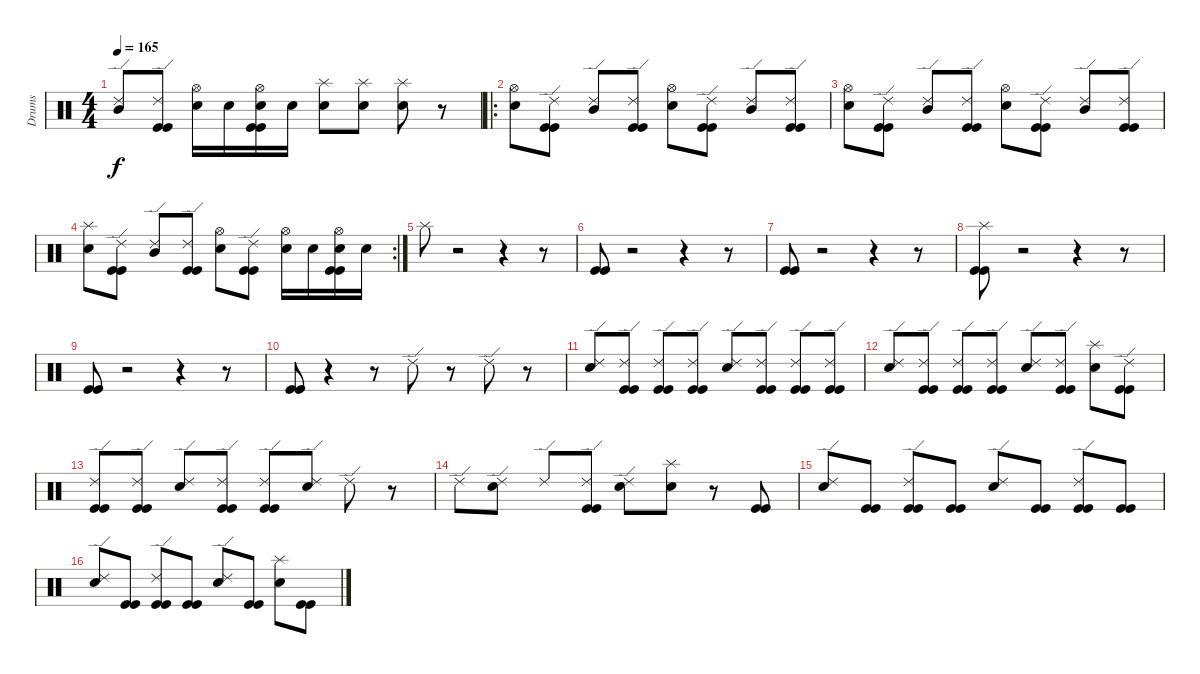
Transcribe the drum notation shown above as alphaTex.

\track ("Drums" "Drums") {instrument percussion}
\staff {score}
\articulation defaults
\ts (4 4)
\tempo 165
\clef neutral
\ks c
("Ride (edge) 2" "Mid Tom (hit)").8{dy f} ("Ride (edge) 2" "Kick (hit)" "Kick (hit)").8 ("Hi-Hat (open)" "Snare (hit) 2").16 "Snare (hit) 2".16 ("Hi-Hat (open)" "Snare (hit) 2" "Kick (hit)" "Kick (hit)").16 "Snare (hit) 2".16 ("Splash (hit)" "Snare (hit) 2").8 ("Splash (hit)" "Snare (hit) 2").8 ("Splash (hit)" "Snare (hit) 2").8 r.8 |
\ro
("Hi-Hat (open)" "Snare (hit) 2").8 ("Ride (edge) 2" "Kick (hit)" "Kick (hit)").8 ("Ride (edge) 2" "Mid Tom (hit)").8 ("Ride (edge) 2" "Kick (hit)" "Kick (hit)").8 ("Hi-Hat (open)" "Snare (hit) 2").8 ("Ride (edge) 2" "Kick (hit)" "Kick (hit)").8 ("Ride (edge) 2" "Mid Tom (hit)").8 ("Ride (edge) 2" "Kick (hit)" "Kick (hit)").8 |
("Hi-Hat (open)" "Snare (hit) 2").8 ("Ride (edge) 2" "Kick (hit)" "Kick (hit)").8 ("Ride (edge) 2" "Mid Tom (hit)").8 ("Ride (edge) 2" "Kick (hit)" "Kick (hit)").8 ("Hi-Hat (open)" "Snare (hit) 2").8 ("Ride (edge) 2" "Kick (hit)" "Kick (hit)").8 ("Ride (edge) 2" "Mid Tom (hit)").8 ("Ride (edge) 2" "Kick (hit)" "Kick (hit)").8 |
\rc 2
("Splash (hit)" "Snare (hit) 2").8 ("Ride (edge) 2" "Kick (hit)" "Kick (hit)").8 ("Ride (edge) 2" "Mid Tom (hit)").8 ("Ride (edge) 2" "Kick (hit)" "Kick (hit)").8 ("Hi-Hat (open)" "Snare (hit) 2").8 ("Ride (edge) 2" "Kick (hit)" "Kick (hit)").8 ("Hi-Hat (open)" "Snare (hit) 2").16 "Snare (hit) 2".16 ("Hi-Hat (open)" "Snare (hit) 2" "Kick (hit)" "Kick (hit)").16 "Snare (hit) 2".16 |
"Splash (hit)".8 r.2 r.4 r.8 |
("Kick (hit)" "Kick (hit)").8 r.2 r.4 r.8 |
("Kick (hit)" "Kick (hit)").8 r.2 r.4 r.8 |
("Splash (hit)" "Kick (hit)" "Kick (hit)").8 r.2 r.4 r.8 |
("Kick (hit)" "Kick (hit)").8 r.2 r.4 r.8 |
("Kick (hit)" "Kick (hit)").8 r.4 r.8 "Ride (edge) 2".8 r.8 "Ride (edge) 2".8 r.8 |
("Ride (edge) 2" "Snare (hit) 2").8 ("Ride (edge) 2" "Kick (hit)" "Kick (hit)").8 ("Ride (edge) 2" "Kick (hit)" "Kick (hit)").8 ("Ride (edge) 2" "Kick (hit)" "Kick (hit)").8 ("Ride (edge) 2" "Snare (hit) 2").8 ("Ride (edge) 2" "Kick (hit)" "Kick (hit)").8 ("Ride (edge) 2" "Kick (hit)" "Kick (hit)").8 ("Ride (edge) 2" "Kick (hit)" "Kick (hit)").8 |
("Ride (edge) 2" "Snare (hit) 2").8 ("Ride (edge) 2" "Kick (hit)" "Kick (hit)").8 ("Ride (edge) 2" "Kick (hit)" "Kick (hit)").8 ("Ride (edge) 2" "Kick (hit)" "Kick (hit)").8 ("Ride (edge) 2" "Snare (hit) 2").8 ("Ride (edge) 2" "Kick (hit)" "Kick (hit)").8 ("Splash (hit)" "Snare (hit) 2").8 ("Ride (edge) 2" "Kick (hit)" "Kick (hit)").8 |
("Ride (edge) 2" "Kick (hit)" "Kick (hit)").8 ("Ride (edge) 2" "Kick (hit)" "Kick (hit)").8 ("Ride (edge) 2" "Snare (hit) 2").8 ("Ride (edge) 2" "Kick (hit)" "Kick (hit)").8 ("Ride (edge) 2" "Kick (hit)" "Kick (hit)").8 ("Ride (edge) 2" "Snare (hit) 2").8 "Ride (edge) 2".8 r.8 |
"Ride (edge) 2".8 ("Ride (edge) 2" "Snare (hit) 2").8 "Ride (edge) 2".8 ("Ride (edge) 2" "Kick (hit)" "Kick (hit)").8 ("Ride (edge) 2" "Snare (hit) 2").8 ("Splash (hit)" "Snare (hit) 2").8 r.8 ("Kick (hit)" "Kick (hit)").8 |
("Ride (edge) 2" "Snare (hit) 2").8 ("Kick (hit)" "Kick (hit)").8 ("Ride (edge) 2" "Kick (hit)" "Kick (hit)").8 ("Kick (hit)" "Kick (hit)").8 ("Ride (edge) 2" "Snare (hit) 2").8 ("Kick (hit)" "Kick (hit)").8 ("Ride (edge) 2" "Kick (hit)" "Kick (hit)").8 ("Kick (hit)" "Kick (hit)").8 |
("Ride (edge) 2" "Snare (hit) 2").8 ("Kick (hit)" "Kick (hit)").8 ("Ride (edge) 2" "Kick (hit)" "Kick (hit)").8 ("Kick (hit)" "Kick (hit)").8 ("Ride (edge) 2" "Snare (hit) 2").8 ("Kick (hit)" "Kick (hit)").8 ("Splash (hit)" "Snare (hit) 2").8 ("Kick (hit)" "Kick (hit)").8
